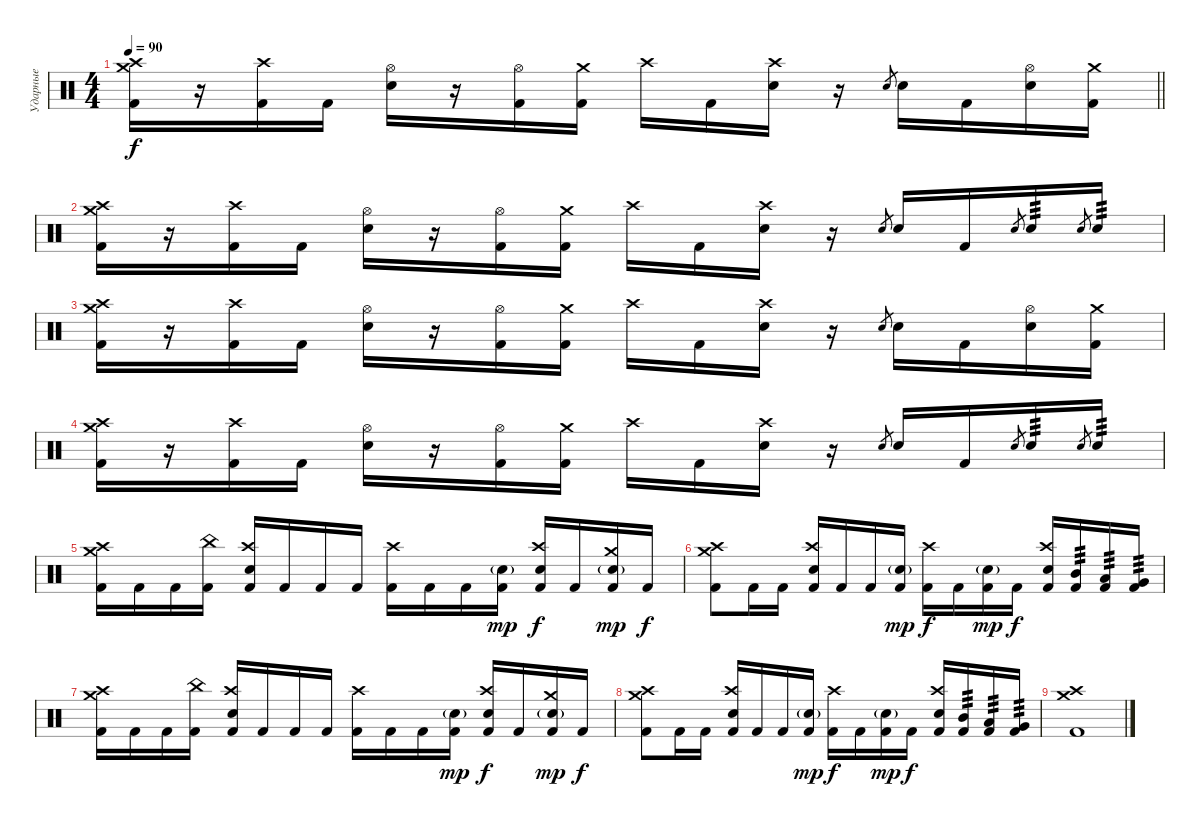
\track ("Ударные" "Ударные") {instrument percussion}
\staff {score}
\articulation defaults
\ts (4 4)
\tempo 90
\clef neutral
\barLineRight lightlight
\ks c
("Kick (hit) 2" "Crash medium (hit)" "Crash high (hit)").16{dy f} r.16 ("Kick (hit) 2" "Crash high (hit)").16 "Kick (hit) 2".16 ("Electric Snare (hit)" "Hi-Hat (open)").16 r.16 ("Kick (hit) 2" "Hi-Hat (open)").16 ("Kick (hit) 2" "Crash medium (hit)").16 "Crash high (hit)".16 "Kick (hit) 2".16 ("Electric Snare (hit)" "Crash high (hit)").16 r.16 "Electric Snare (hit)".8{gr} "Electric Snare (hit)".16 "Kick (hit) 2".16 ("Electric Snare (hit)" "Hi-Hat (open)").16 ("Kick (hit) 2" "Crash medium (hit)").16 |
("Kick (hit) 2" "Crash medium (hit)" "Crash high (hit)").16 r.16 ("Kick (hit) 2" "Crash high (hit)").16 "Kick (hit) 2".16 ("Electric Snare (hit)" "Hi-Hat (open)").16 r.16 ("Kick (hit) 2" "Hi-Hat (open)").16 ("Kick (hit) 2" "Crash medium (hit)").16 "Crash high (hit)".16 "Kick (hit) 2".16 ("Electric Snare (hit)" "Crash high (hit)").16 r.16 "Electric Snare (hit)".8{gr} "Electric Snare (hit)".16 "Kick (hit) 2".16 "Electric Snare (hit)".8{gr} "Electric Snare (hit)".16{tp 3} "Electric Snare (hit)".8{gr} "Electric Snare (hit)".16{tp 3} |
("Kick (hit) 2" "Crash medium (hit)" "Crash high (hit)").16 r.16 ("Kick (hit) 2" "Crash high (hit)").16 "Kick (hit) 2".16 ("Electric Snare (hit)" "Hi-Hat (open)").16 r.16 ("Kick (hit) 2" "Hi-Hat (open)").16 ("Kick (hit) 2" "Crash medium (hit)").16 "Crash high (hit)".16 "Kick (hit) 2".16 ("Electric Snare (hit)" "Crash high (hit)").16 r.16 "Electric Snare (hit)".8{gr} "Electric Snare (hit)".16 "Kick (hit) 2".16 ("Electric Snare (hit)" "Hi-Hat (open)").16 ("Kick (hit) 2" "Crash medium (hit)").16 |
("Kick (hit) 2" "Crash medium (hit)" "Crash high (hit)").16 r.16 ("Kick (hit) 2" "Crash high (hit)").16 "Kick (hit) 2".16 ("Electric Snare (hit)" "Hi-Hat (open)").16 r.16 ("Kick (hit) 2" "Hi-Hat (open)").16 ("Kick (hit) 2" "Crash medium (hit)").16 "Crash high (hit)".16 "Kick (hit) 2".16 ("Electric Snare (hit)" "Crash high (hit)").16 r.16 "Electric Snare (hit)".8{gr} "Electric Snare (hit)".16 "Kick (hit) 2".16 "Electric Snare (hit)".8{gr} "Electric Snare (hit)".16{tp 3} "Electric Snare (hit)".8{gr} "Electric Snare (hit)".16{tp 3} |
("Kick (hit) 2" "Crash medium (hit)" "Crash high (hit)").16 "Kick (hit) 2".16 "Kick (hit) 2".16 ("Kick (hit) 2" "China (hit)").16 ("Kick (hit) 2" "Electric Snare (hit)" "Crash high (hit)").16 "Kick (hit) 2".16 "Kick (hit) 2".16 "Kick (hit) 2".16 ("Kick (hit) 2" "Crash high (hit)").16 "Kick (hit) 2".16 "Kick (hit) 2".16 ("Kick (hit) 2" "Electric Snare (hit)"{g}).16{dy mp} ("Kick (hit) 2" "Electric Snare (hit)" "Crash high (hit)").16{dy f} "Kick (hit) 2".16 ("Kick (hit) 2" "Crash medium (hit)" "Electric Snare (hit)"{g}).16{dy mp} "Kick (hit) 2".16{dy f} |
("Kick (hit) 2" "Crash medium (hit)" "Crash high (hit)").8 "Kick (hit) 2".16 "Kick (hit) 2".16 ("Kick (hit) 2" "Crash high (hit)" "Electric Snare (hit)").16 "Kick (hit) 2".16 "Kick (hit) 2".16 ("Kick (hit) 2" "Electric Snare (hit)"{g}).16{dy mp} ("Kick (hit) 2" "Crash high (hit)").16{dy f} "Kick (hit) 2".16 ("Kick (hit) 2" "Electric Snare (hit)"{g}).16{dy mp} "Kick (hit) 2".16{dy f} ("Kick (hit) 2" "Crash high (hit)" "Electric Snare (hit)").16 ("Kick (hit) 2" "Mid Tom (hit)").16{tp 3} ("Kick (hit) 2" "Low Tom (hit)").16{tp 3} ("Kick (hit) 2" "Very Low Tom (hit)").16{tp 3} |
("Kick (hit) 2" "Crash medium (hit)" "Crash high (hit)").16 "Kick (hit) 2".16 "Kick (hit) 2".16 ("Kick (hit) 2" "China (hit)").16 ("Kick (hit) 2" "Electric Snare (hit)" "Crash high (hit)").16 "Kick (hit) 2".16 "Kick (hit) 2".16 "Kick (hit) 2".16 ("Kick (hit) 2" "Crash high (hit)").16 "Kick (hit) 2".16 "Kick (hit) 2".16 ("Kick (hit) 2" "Electric Snare (hit)"{g}).16{dy mp} ("Kick (hit) 2" "Electric Snare (hit)" "Crash high (hit)").16{dy f} "Kick (hit) 2".16 ("Kick (hit) 2" "Crash medium (hit)" "Electric Snare (hit)"{g}).16{dy mp} "Kick (hit) 2".16{dy f} |
("Kick (hit) 2" "Crash medium (hit)" "Crash high (hit)").8 "Kick (hit) 2".16 "Kick (hit) 2".16 ("Kick (hit) 2" "Crash high (hit)" "Electric Snare (hit)").16 "Kick (hit) 2".16 "Kick (hit) 2".16 ("Kick (hit) 2" "Electric Snare (hit)"{g}).16{dy mp} ("Kick (hit) 2" "Crash high (hit)").16{dy f} "Kick (hit) 2".16 ("Kick (hit) 2" "Electric Snare (hit)"{g}).16{dy mp} "Kick (hit) 2".16{dy f} ("Kick (hit) 2" "Crash high (hit)" "Electric Snare (hit)").16 ("Kick (hit) 2" "Mid Tom (hit)").16{tp 3} ("Kick (hit) 2" "Low Tom (hit)").16{tp 3} ("Kick (hit) 2" "Very Low Tom (hit)").16{tp 3} |
("Kick (hit) 2" "Crash medium (hit)" "Crash high (hit)").1
